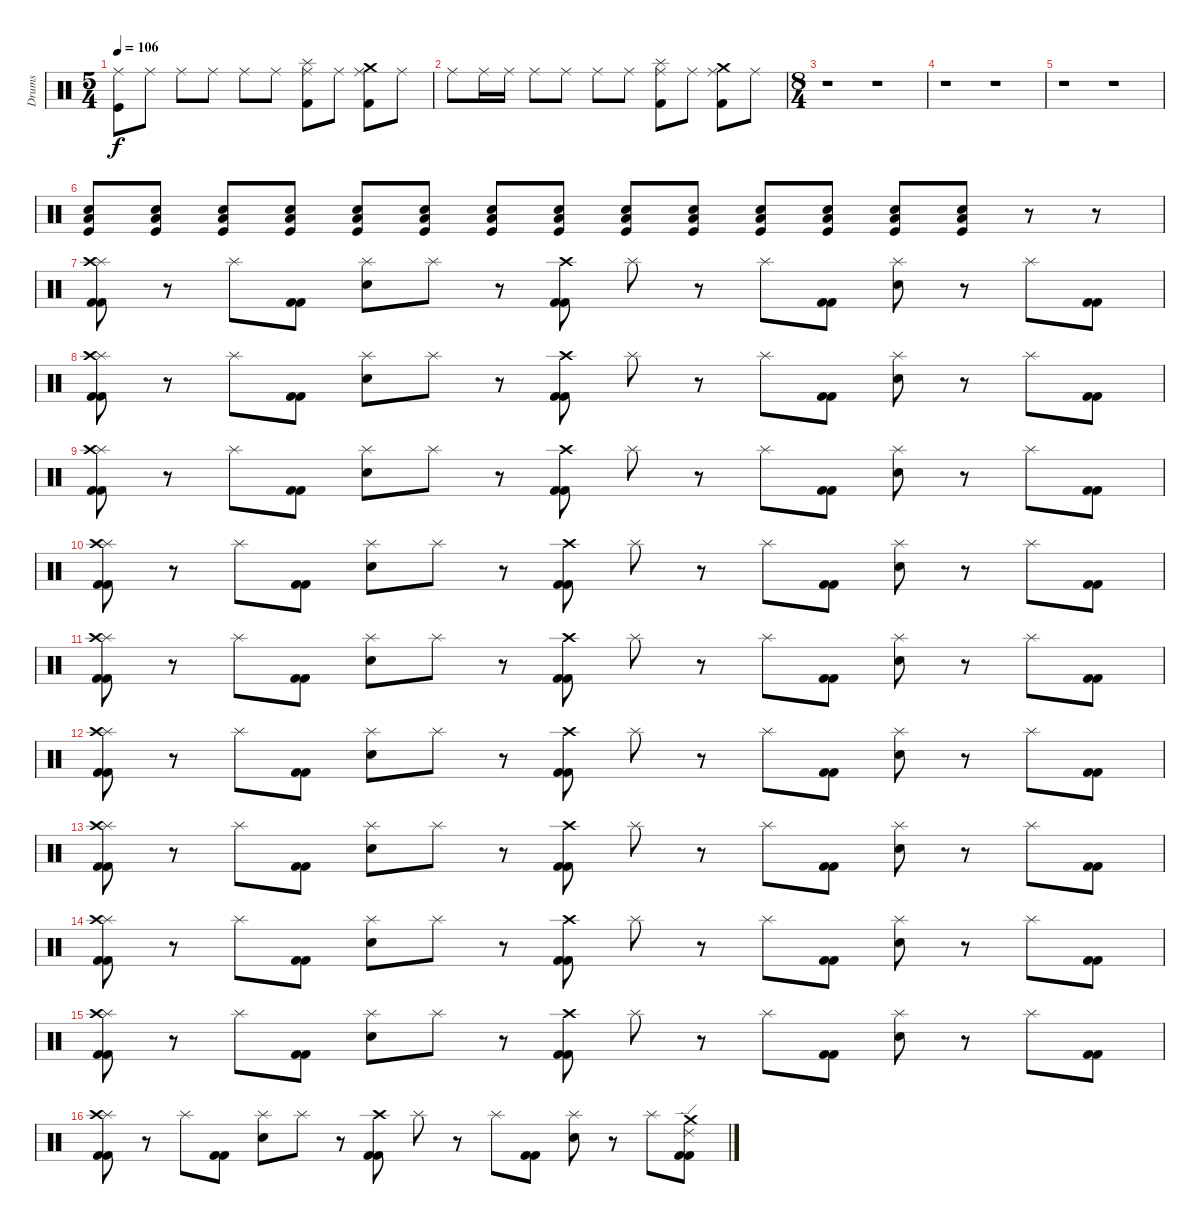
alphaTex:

\track ("Drums" "Drums") {instrument percussion}
\staff {score}
\articulation defaults
\ts (5 4)
\tempo 106
\clef neutral
\ks c
("Ride (middle)" "Kick (hit)").8{dy f} "Ride (middle)".8 "Ride (middle)".8 "Ride (middle)".8 "Ride (middle)".8 "Ride (middle)".8 ("Ride (middle)" "Splash (hit)" "Kick (hit) 2").8 "Ride (middle)".8 ("Ride (middle)" "Crash medium (hit)" "Kick (hit) 2").8 "Ride (middle)".8 |
"Ride (middle)".8 "Ride (middle)".16 "Ride (middle)".16 "Ride (middle)".8 "Ride (middle)".8 "Ride (middle)".8 "Ride (middle)".8 ("Ride (middle)" "Splash (hit)" "Kick (hit) 2").8 "Ride (middle)".8 ("Ride (middle)" "Crash medium (hit)" "Kick (hit) 2").8 "Ride (middle)".8 |
\ts (8 4)
r.1 r.1 |
r.1 r.1 |
r.1 r.1 |
("Electric Snare (hit)" "Low Floor Tom (hit)" "Kick (hit)").8{volume 6} ("Electric Snare (hit)" "Low Floor Tom (hit)" "Kick (hit)").8 ("Electric Snare (hit)" "Low Floor Tom (hit)" "Kick (hit)").8{volume 7} ("Electric Snare (hit)" "Low Floor Tom (hit)" "Kick (hit)").8 ("Electric Snare (hit)" "Low Floor Tom (hit)" "Kick (hit)").8{volume 8} ("Electric Snare (hit)" "Low Floor Tom (hit)" "Kick (hit)").8 ("Electric Snare (hit)" "Low Floor Tom (hit)" "Kick (hit)").8{volume 9} ("Electric Snare (hit)" "Low Floor Tom (hit)" "Kick (hit)").8 ("Electric Snare (hit)" "Low Floor Tom (hit)" "Kick (hit)").8{volume 10} ("Electric Snare (hit)" "Low Floor Tom (hit)" "Kick (hit)").8 ("Electric Snare (hit)" "Low Floor Tom (hit)" "Kick (hit)").8{volume 11} ("Electric Snare (hit)" "Low Floor Tom (hit)" "Kick (hit)").8 ("Electric Snare (hit)" "Low Floor Tom (hit)" "Kick (hit)").8{volume 13} ("Electric Snare (hit)" "Low Floor Tom (hit)" "Kick (hit)").8 r.8{volume 13} r.8 |
("Splash (hit)" "Crash high (hit)" "Kick (hit) 2" "Kick (hit) 2").8 r.8 "Splash (hit)".8 ("Kick (hit) 2" "Kick (hit) 2").8 ("Splash (hit)" "Electric Snare (hit)").8 "Splash (hit)".8 r.8 ("Crash high (hit)" "Kick (hit) 2" "Kick (hit) 2").8 "Splash (hit)".8 r.8 "Splash (hit)".8 ("Kick (hit) 2" "Kick (hit) 2").8 ("Splash (hit)" "Electric Snare (hit)").8 r.8 "Splash (hit)".8 ("Kick (hit) 2" "Kick (hit) 2").8 |
("Splash (hit)" "Crash high (hit)" "Kick (hit) 2" "Kick (hit) 2").8 r.8 "Splash (hit)".8 ("Kick (hit) 2" "Kick (hit) 2").8 ("Splash (hit)" "Electric Snare (hit)").8 "Splash (hit)".8 r.8 ("Crash high (hit)" "Kick (hit) 2" "Kick (hit) 2").8 "Splash (hit)".8 r.8 "Splash (hit)".8 ("Kick (hit) 2" "Kick (hit) 2").8 ("Splash (hit)" "Electric Snare (hit)").8 r.8 "Splash (hit)".8 ("Kick (hit) 2" "Kick (hit) 2").8 |
("Splash (hit)" "Crash high (hit)" "Kick (hit) 2" "Kick (hit) 2").8 r.8 "Splash (hit)".8 ("Kick (hit) 2" "Kick (hit) 2").8 ("Splash (hit)" "Electric Snare (hit)").8 "Splash (hit)".8 r.8 ("Crash high (hit)" "Kick (hit) 2" "Kick (hit) 2").8 "Splash (hit)".8 r.8 "Splash (hit)".8 ("Kick (hit) 2" "Kick (hit) 2").8 ("Splash (hit)" "Electric Snare (hit)").8 r.8 "Splash (hit)".8 ("Kick (hit) 2" "Kick (hit) 2").8 |
("Splash (hit)" "Crash high (hit)" "Kick (hit) 2" "Kick (hit) 2").8 r.8 "Splash (hit)".8 ("Kick (hit) 2" "Kick (hit) 2").8 ("Splash (hit)" "Electric Snare (hit)").8 "Splash (hit)".8 r.8 ("Crash high (hit)" "Kick (hit) 2" "Kick (hit) 2").8 "Splash (hit)".8 r.8 "Splash (hit)".8 ("Kick (hit) 2" "Kick (hit) 2").8 ("Splash (hit)" "Electric Snare (hit)").8 r.8 "Splash (hit)".8 ("Kick (hit) 2" "Kick (hit) 2").8 |
("Splash (hit)" "Crash high (hit)" "Kick (hit) 2" "Kick (hit) 2").8 r.8 "Splash (hit)".8 ("Kick (hit) 2" "Kick (hit) 2").8 ("Splash (hit)" "Electric Snare (hit)").8 "Splash (hit)".8 r.8 ("Crash high (hit)" "Kick (hit) 2" "Kick (hit) 2").8 "Splash (hit)".8 r.8 "Splash (hit)".8 ("Kick (hit) 2" "Kick (hit) 2").8 ("Splash (hit)" "Electric Snare (hit)").8 r.8 "Splash (hit)".8 ("Kick (hit) 2" "Kick (hit) 2").8 |
("Splash (hit)" "Crash high (hit)" "Kick (hit) 2" "Kick (hit) 2").8 r.8 "Splash (hit)".8 ("Kick (hit) 2" "Kick (hit) 2").8 ("Splash (hit)" "Electric Snare (hit)").8 "Splash (hit)".8 r.8 ("Crash high (hit)" "Kick (hit) 2" "Kick (hit) 2").8 "Splash (hit)".8 r.8 "Splash (hit)".8 ("Kick (hit) 2" "Kick (hit) 2").8 ("Splash (hit)" "Electric Snare (hit)").8 r.8 "Splash (hit)".8 ("Kick (hit) 2" "Kick (hit) 2").8 |
("Splash (hit)" "Crash high (hit)" "Kick (hit) 2" "Kick (hit) 2").8 r.8 "Splash (hit)".8 ("Kick (hit) 2" "Kick (hit) 2").8 ("Splash (hit)" "Electric Snare (hit)").8 "Splash (hit)".8 r.8 ("Crash high (hit)" "Kick (hit) 2" "Kick (hit) 2").8 "Splash (hit)".8 r.8 "Splash (hit)".8 ("Kick (hit) 2" "Kick (hit) 2").8 ("Splash (hit)" "Electric Snare (hit)").8 r.8 "Splash (hit)".8 ("Kick (hit) 2" "Kick (hit) 2").8 |
("Splash (hit)" "Crash high (hit)" "Kick (hit) 2" "Kick (hit) 2").8 r.8 "Splash (hit)".8 ("Kick (hit) 2" "Kick (hit) 2").8 ("Splash (hit)" "Electric Snare (hit)").8 "Splash (hit)".8 r.8 ("Crash high (hit)" "Kick (hit) 2" "Kick (hit) 2").8 "Splash (hit)".8 r.8 "Splash (hit)".8 ("Kick (hit) 2" "Kick (hit) 2").8 ("Splash (hit)" "Electric Snare (hit)").8 r.8 "Splash (hit)".8 ("Kick (hit) 2" "Kick (hit) 2").8 |
("Splash (hit)" "Crash high (hit)" "Kick (hit) 2" "Kick (hit) 2").8 r.8 "Splash (hit)".8 ("Kick (hit) 2" "Kick (hit) 2").8 ("Splash (hit)" "Electric Snare (hit)").8 "Splash (hit)".8 r.8 ("Crash high (hit)" "Kick (hit) 2" "Kick (hit) 2").8 "Splash (hit)".8 r.8 "Splash (hit)".8 ("Kick (hit) 2" "Kick (hit) 2").8 ("Splash (hit)" "Electric Snare (hit)").8 r.8 "Splash (hit)".8 ("Kick (hit) 2" "Kick (hit) 2").8 |
("Splash (hit)" "Crash high (hit)" "Kick (hit) 2" "Kick (hit) 2").8 r.8 "Splash (hit)".8 ("Kick (hit) 2" "Kick (hit) 2").8 ("Splash (hit)" "Electric Snare (hit)").8 "Splash (hit)".8 r.8 ("Crash high (hit)" "Kick (hit) 2" "Kick (hit) 2").8 "Splash (hit)".8 r.8 "Splash (hit)".8 ("Kick (hit) 2" "Kick (hit) 2").8 ("Splash (hit)" "Electric Snare (hit)").8 r.8 "Splash (hit)".8 ("Crash medium (hit)" "Ride (edge) 2" "Kick (hit) 2" "Kick (hit) 2").8
